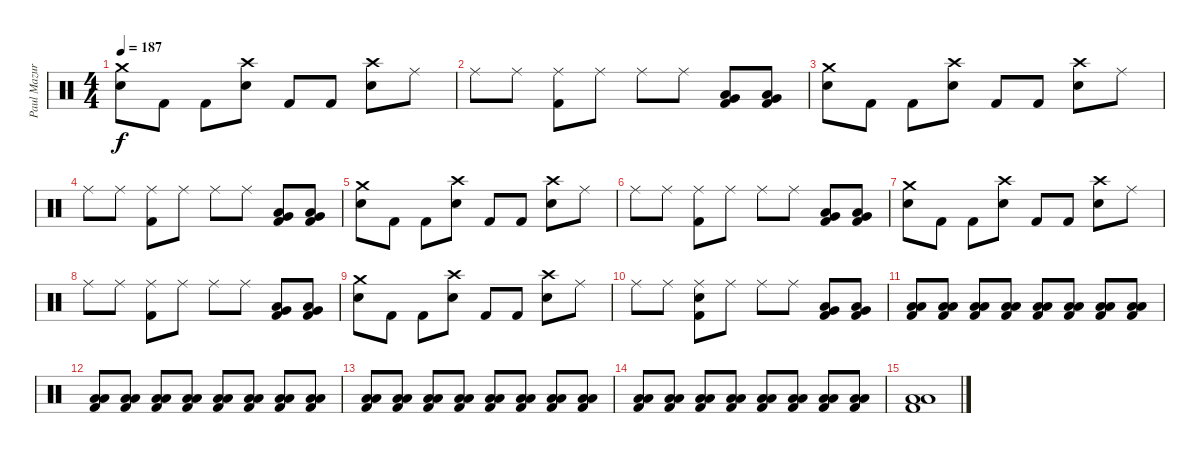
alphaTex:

\track ("Paul Mazurkiewicz - Drums" "Paul Mazur") {instrument percussion}
\staff {score}
\articulation defaults
\ts (4 4)
\tempo 187
\clef neutral
\ks c
("Crash medium (hit)" "Snare (hit) 2").8{dy f} "Kick (hit) 2".8 "Kick (hit) 2".8 ("Crash high (hit)" "Snare (hit) 2").8 "Kick (hit) 2".8 "Kick (hit) 2".8 ("Crash high (hit)" "Snare (hit) 2").8 "Ride (middle)".8 |
"Ride (middle)".8 "Ride (middle)".8 ("Ride (middle)" "Kick (hit) 2").8 "Ride (middle)".8 "Ride (middle)".8 "Ride (middle)".8 ("Kick (hit) 2" "Low Floor Tom (hit)" "Very Low Tom (hit)").8 ("Kick (hit) 2" "Low Floor Tom (hit)" "Very Low Tom (hit)").8 |
("Crash medium (hit)" "Snare (hit) 2").8 "Kick (hit) 2".8 "Kick (hit) 2".8 ("Crash high (hit)" "Snare (hit) 2").8 "Kick (hit) 2".8 "Kick (hit) 2".8 ("Crash high (hit)" "Snare (hit) 2").8 "Ride (middle)".8 |
"Ride (middle)".8 "Ride (middle)".8 ("Ride (middle)" "Kick (hit) 2").8 "Ride (middle)".8 "Ride (middle)".8 "Ride (middle)".8 ("Kick (hit) 2" "Low Floor Tom (hit)" "Very Low Tom (hit)").8 ("Kick (hit) 2" "Low Floor Tom (hit)" "Very Low Tom (hit)").8 |
("Crash medium (hit)" "Snare (hit) 2").8 "Kick (hit) 2".8 "Kick (hit) 2".8 ("Crash high (hit)" "Snare (hit) 2").8 "Kick (hit) 2".8 "Kick (hit) 2".8 ("Crash high (hit)" "Snare (hit) 2").8 "Ride (middle)".8 |
"Ride (middle)".8 "Ride (middle)".8 ("Ride (middle)" "Kick (hit) 2").8 "Ride (middle)".8 "Ride (middle)".8 "Ride (middle)".8 ("Kick (hit) 2" "Low Floor Tom (hit)" "Very Low Tom (hit)").8 ("Kick (hit) 2" "Low Floor Tom (hit)" "Very Low Tom (hit)").8 |
("Crash medium (hit)" "Snare (hit) 2").8 "Kick (hit) 2".8 "Kick (hit) 2".8 ("Crash high (hit)" "Snare (hit) 2").8 "Kick (hit) 2".8 "Kick (hit) 2".8 ("Crash high (hit)" "Snare (hit) 2").8 "Ride (middle)".8 |
"Ride (middle)".8 "Ride (middle)".8 ("Ride (middle)" "Kick (hit) 2").8 "Ride (middle)".8 "Ride (middle)".8 "Ride (middle)".8 ("Kick (hit) 2" "Low Floor Tom (hit)" "Very Low Tom (hit)").8 ("Kick (hit) 2" "Low Floor Tom (hit)" "Very Low Tom (hit)").8 |
("Crash medium (hit)" "Snare (hit) 2").8 "Kick (hit) 2".8 "Kick (hit) 2".8 ("Crash high (hit)" "Snare (hit) 2").8 "Kick (hit) 2".8 "Kick (hit) 2".8 ("Crash high (hit)" "Snare (hit) 2").8 "Ride (middle)".8 |
"Ride (middle)".8 "Ride (middle)".8 ("Electric Snare (hit)" "Ride (middle)" "Kick (hit) 2").8 "Ride (middle)".8 "Ride (middle)".8 "Ride (middle)".8 ("Kick (hit) 2" "Low Floor Tom (hit)" "Very Low Tom (hit)").8 ("Kick (hit) 2" "Low Floor Tom (hit)" "Very Low Tom (hit)").8 |
("Low Tom (hit)" "Low Floor Tom (hit)" "Kick (hit) 2").8{volume 16} ("Low Tom (hit)" "Low Floor Tom (hit)" "Kick (hit) 2").8 ("Low Tom (hit)" "Low Floor Tom (hit)" "Kick (hit) 2").8 ("Low Tom (hit)" "Low Floor Tom (hit)" "Kick (hit) 2").8 ("Low Tom (hit)" "Low Floor Tom (hit)" "Kick (hit) 2").8 ("Low Tom (hit)" "Low Floor Tom (hit)" "Kick (hit) 2").8 ("Low Tom (hit)" "Low Floor Tom (hit)" "Kick (hit) 2").8 ("Low Tom (hit)" "Low Floor Tom (hit)" "Kick (hit) 2").8 |
("Low Tom (hit)" "Low Floor Tom (hit)" "Kick (hit) 2").8 ("Low Tom (hit)" "Low Floor Tom (hit)" "Kick (hit) 2").8 ("Low Tom (hit)" "Low Floor Tom (hit)" "Kick (hit) 2").8 ("Low Tom (hit)" "Low Floor Tom (hit)" "Kick (hit) 2").8 ("Low Tom (hit)" "Low Floor Tom (hit)" "Kick (hit) 2").8 ("Low Tom (hit)" "Low Floor Tom (hit)" "Kick (hit) 2").8 ("Low Tom (hit)" "Low Floor Tom (hit)" "Kick (hit) 2").8 ("Low Tom (hit)" "Low Floor Tom (hit)" "Kick (hit) 2").8 |
("Low Tom (hit)" "Low Floor Tom (hit)" "Kick (hit) 2").8 ("Low Tom (hit)" "Low Floor Tom (hit)" "Kick (hit) 2").8 ("Low Tom (hit)" "Low Floor Tom (hit)" "Kick (hit) 2").8 ("Low Tom (hit)" "Low Floor Tom (hit)" "Kick (hit) 2").8 ("Low Tom (hit)" "Low Floor Tom (hit)" "Kick (hit) 2").8 ("Low Tom (hit)" "Low Floor Tom (hit)" "Kick (hit) 2").8 ("Low Tom (hit)" "Low Floor Tom (hit)" "Kick (hit) 2").8 ("Low Tom (hit)" "Low Floor Tom (hit)" "Kick (hit) 2").8 |
("Low Tom (hit)" "Low Floor Tom (hit)" "Kick (hit) 2").8 ("Low Tom (hit)" "Low Floor Tom (hit)" "Kick (hit) 2").8 ("Low Tom (hit)" "Low Floor Tom (hit)" "Kick (hit) 2").8 ("Low Tom (hit)" "Low Floor Tom (hit)" "Kick (hit) 2").8 ("Low Tom (hit)" "Low Floor Tom (hit)" "Kick (hit) 2").8 ("Low Tom (hit)" "Low Floor Tom (hit)" "Kick (hit) 2").8 ("Low Tom (hit)" "Low Floor Tom (hit)" "Kick (hit) 2").8 ("Low Tom (hit)" "Low Floor Tom (hit)" "Kick (hit) 2").8 |
("Low Floor Tom (hit)" "Low Tom (hit)" "Kick (hit) 2").1
